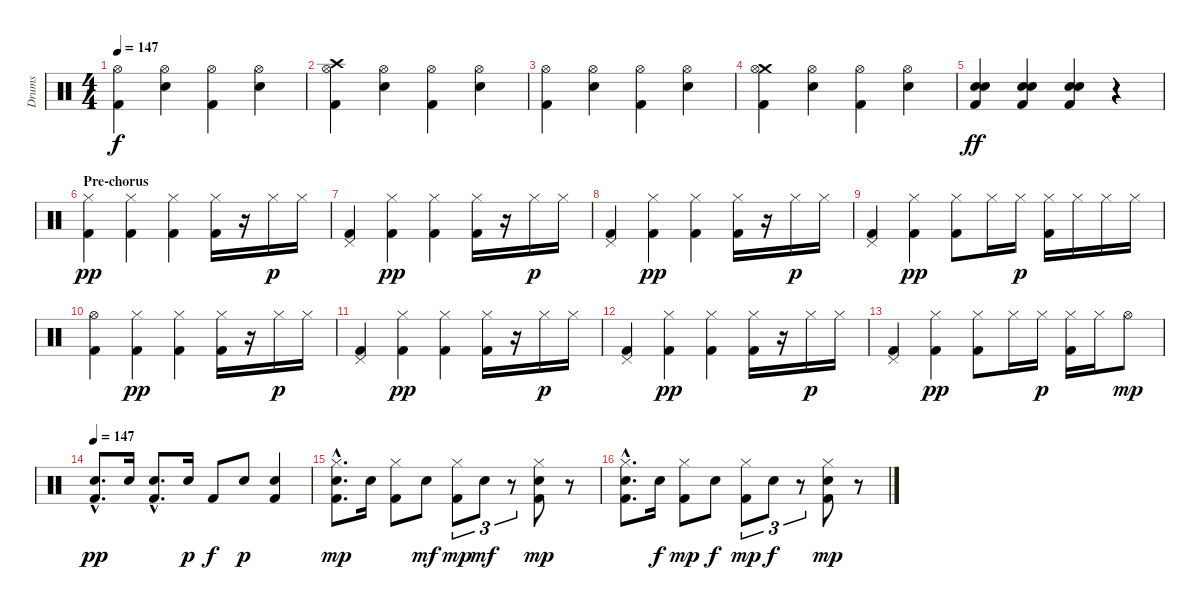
\track ("Drums" "Drums") {instrument percussion}
\staff {score}
\articulation defaults
\ts (4 4)
\tempo 147
\clef neutral
\ks c
("Kick (hit) 2" "Hi-Hat (open)").4{dy f} ("Electric Snare (hit)" "Hi-Hat (open)").4 ("Kick (hit) 2" "Hi-Hat (open)").4 ("Electric Snare (hit)" "Hi-Hat (open)").4 |
("Kick (hit) 2" "Crash high (hit)" "Hi-Hat (open)").4 ("Electric Snare (hit)" "Hi-Hat (open)").4 ("Kick (hit) 2" "Hi-Hat (open)").4 ("Electric Snare (hit)" "Hi-Hat (open)").4 |
("Kick (hit) 2" "Hi-Hat (open)").4 ("Electric Snare (hit)" "Hi-Hat (open)").4 ("Kick (hit) 2" "Hi-Hat (open)").4 ("Electric Snare (hit)" "Hi-Hat (open)").4 |
("Kick (hit) 2" "Crash medium (hit)" "Hi-Hat (open)").4 ("Electric Snare (hit)" "Hi-Hat (open)").4 ("Kick (hit) 2" "Hi-Hat (open)").4 ("Electric Snare (hit)" "Hi-Hat (open)").4 |
("Kick (hit) 2" "Electric Snare (hit)" "Snare (hit) 2").4{dy ff} ("Kick (hit) 2" "Electric Snare (hit)" "Snare (hit) 2").4 ("Kick (hit) 2" "Electric Snare (hit)" "Snare (hit) 2").4 r.4 |
\section ("" "Pre-chorus")
("Kick (hit) 2" "Hi-Hat (closed)").4{dy pp} ("Kick (hit) 2" "Hi-Hat (closed)").4 ("Kick (hit) 2" "Hi-Hat (closed)").4 ("Kick (hit) 2" "Hi-Hat (closed)").16 r.16 "Hi-Hat (closed)".16{dy p} "Hi-Hat (closed)".16 |
("Kick (hit) 2" "Pedal Hi-Hat (hit)").4 ("Kick (hit) 2" "Hi-Hat (closed)").4{dy pp} ("Kick (hit) 2" "Hi-Hat (closed)").4 ("Kick (hit) 2" "Hi-Hat (closed)").16 r.16 "Hi-Hat (closed)".16{dy p} "Hi-Hat (closed)".16 |
("Kick (hit) 2" "Pedal Hi-Hat (hit)").4 ("Kick (hit) 2" "Hi-Hat (closed)").4{dy pp} ("Kick (hit) 2" "Hi-Hat (closed)").4 ("Kick (hit) 2" "Hi-Hat (closed)").16 r.16 "Hi-Hat (closed)".16{dy p} "Hi-Hat (closed)".16 |
("Kick (hit) 2" "Pedal Hi-Hat (hit)").4 ("Kick (hit) 2" "Hi-Hat (closed)").4{dy pp} ("Kick (hit) 2" "Hi-Hat (closed)").8 "Hi-Hat (closed)".16 "Hi-Hat (closed)".16{dy p} ("Kick (hit) 2" "Hi-Hat (closed)").16 "Hi-Hat (closed)".16 "Hi-Hat (closed)".16 "Hi-Hat (closed)".16 |
("Kick (hit) 2" "Hi-Hat (open)").4 ("Kick (hit) 2" "Hi-Hat (closed)").4{dy pp} ("Kick (hit) 2" "Hi-Hat (closed)").4 ("Kick (hit) 2" "Hi-Hat (closed)").16 r.16 "Hi-Hat (closed)".16{dy p} "Hi-Hat (closed)".16 |
("Kick (hit) 2" "Pedal Hi-Hat (hit)").4 ("Kick (hit) 2" "Hi-Hat (closed)").4{dy pp} ("Kick (hit) 2" "Hi-Hat (closed)").4 ("Kick (hit) 2" "Hi-Hat (closed)").16 r.16 "Hi-Hat (closed)".16{dy p} "Hi-Hat (closed)".16 |
("Kick (hit) 2" "Pedal Hi-Hat (hit)").4 ("Kick (hit) 2" "Hi-Hat (closed)").4{dy pp} ("Kick (hit) 2" "Hi-Hat (closed)").4 ("Kick (hit) 2" "Hi-Hat (closed)").16 r.16 "Hi-Hat (closed)".16{dy p} "Hi-Hat (closed)".16 |
("Kick (hit) 2" "Pedal Hi-Hat (hit)").4 ("Kick (hit) 2" "Hi-Hat (closed)").4{dy pp} ("Kick (hit) 2" "Hi-Hat (closed)").8 "Hi-Hat (closed)".16 "Hi-Hat (closed)".16{dy p} ("Kick (hit) 2" "Hi-Hat (closed)").16 "Hi-Hat (closed)".16 "Hi-Hat (open)".8{dy mp} |
\tempo 147
("Kick (hit) 2"{hac} "Electric Snare (hit)"{hac}).8{d dy pp} "Electric Snare (hit)".16 ("Kick (hit) 2"{hac} "Electric Snare (hit)"{hac}).8{d} "Electric Snare (hit)".16{dy p} "Kick (hit) 2".8{dy f} "Electric Snare (hit)".8{dy p} ("Kick (hit) 2" "Electric Snare (hit)").4 |
("Kick (hit) 2"{hac} "Hi-Hat (closed)"{hac} "Electric Snare (hit)"{hac}).8{d dy mp} "Electric Snare (hit)".16 ("Kick (hit) 2" "Hi-Hat (closed)").8 "Electric Snare (hit)".8{dy mf} ("Kick (hit) 2" "Hi-Hat (closed)").8{tu (3 2) dy mp} "Electric Snare (hit)".8{tu (3 2) dy mf} r.8{tu (3 2)} ("Kick (hit) 2" "Hi-Hat (closed)" "Electric Snare (hit)").8{dy mp} r.8 |
("Kick (hit) 2"{hac} "Hi-Hat (closed)"{hac} "Electric Snare (hit)"{hac}).8{d} "Electric Snare (hit)".16{dy f} ("Kick (hit) 2" "Hi-Hat (closed)").8{dy mp} "Electric Snare (hit)".8{dy f} ("Kick (hit) 2" "Hi-Hat (closed)").8{tu (3 2) dy mp} "Electric Snare (hit)".8{tu (3 2) dy f} r.8{tu (3 2)} ("Kick (hit) 2" "Hi-Hat (closed)" "Electric Snare (hit)").8{dy mp} r.8
